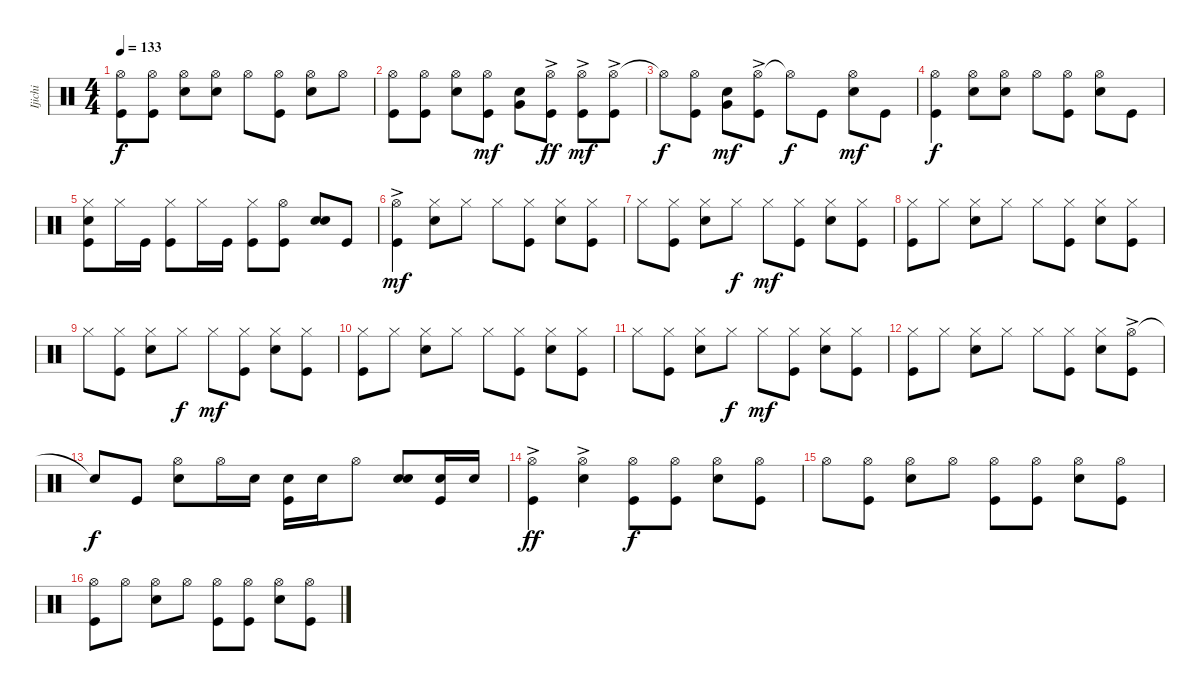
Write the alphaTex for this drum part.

\track ("Ijichi" "Ijichi") {instrument percussion}
\staff {score}
\articulation defaults
\ts (4 4)
\tempo 133
\clef neutral
\ks c
("Hi-Hat (open)" "Kick (hit)").8{dy f} ("Hi-Hat (open)" "Kick (hit)").8 ("Hi-Hat (open)" "Snare (hit) 2").8 ("Hi-Hat (open)" "Snare (hit) 2").8 "Hi-Hat (open)".8 ("Hi-Hat (open)" "Kick (hit)").8 ("Hi-Hat (open)" "Snare (hit) 2").8 "Hi-Hat (open)".8 |
("Hi-Hat (open)" "Kick (hit)").8 ("Hi-Hat (open)" "Kick (hit)").8 ("Hi-Hat (open)" "Snare (hit) 2").8 ("Hi-Hat (open)" "Kick (hit)").8{dy mf} ("Snare (hit) 2" "Very Low Tom (hit)").8 ("Hi-Hat (open)"{ac} "Kick (hit)").8{dy ff} ("Hi-Hat (open)"{ac} "Kick (hit)").8{dy mf} ("Hi-Hat (open)"{ac} "Kick (hit)").8 |
"Hi-Hat (open)"{t}.8{dy f} ("Hi-Hat (open)" "Kick (hit)").8 ("Snare (hit) 2" "Very Low Tom (hit)").8{dy mf} ("Hi-Hat (open)"{ac} "Kick (hit)").8 "Hi-Hat (open)"{t}.8{dy f} "Kick (hit)".8 ("Hi-Hat (open)" "Snare (hit) 2").8{dy mf} "Kick (hit)".8 |
("Hi-Hat (open)" "Kick (hit)").4{dy f} ("Hi-Hat (open)" "Snare (hit) 2").8 ("Hi-Hat (open)" "Snare (hit) 2").8 "Hi-Hat (open)".8 ("Hi-Hat (open)" "Kick (hit)").8 ("Hi-Hat (open)" "Snare (hit) 2").8 "Kick (hit)".8 |
("Hi-Hat (closed)" "Snare (hit) 2" "Kick (hit)").8 "Hi-Hat (closed)".16 "Kick (hit)".16 ("Hi-Hat (closed)" "Kick (hit)").8 "Hi-Hat (closed)".16 "Kick (hit)".16 ("Hi-Hat (closed)" "Kick (hit)").8 ("Hi-Hat (open)" "Kick (hit)").8 ("Snare (hit) 2" "Snare (hit) 2").8 "Kick (hit)".8 |
("Hi-Hat (open)"{ac} "Kick (hit)").4{dy mf} ("Hi-Hat (closed)" "Snare (hit) 2").8 "Hi-Hat (closed)".8 "Hi-Hat (closed)".8 ("Hi-Hat (closed)" "Kick (hit)").8 ("Hi-Hat (closed)" "Snare (hit) 2").8 ("Hi-Hat (closed)" "Kick (hit)").8 |
"Hi-Hat (closed)".8 ("Hi-Hat (closed)" "Kick (hit)").8 ("Hi-Hat (closed)" "Snare (hit) 2").8 "Hi-Hat (closed)".8{dy f} "Hi-Hat (closed)".8{dy mf} ("Hi-Hat (closed)" "Kick (hit)").8 ("Hi-Hat (closed)" "Snare (hit) 2").8 ("Hi-Hat (closed)" "Kick (hit)").8 |
("Hi-Hat (closed)" "Kick (hit)").8 "Hi-Hat (closed)".8 ("Hi-Hat (closed)" "Snare (hit) 2").8 "Hi-Hat (closed)".8 "Hi-Hat (closed)".8 ("Hi-Hat (closed)" "Kick (hit)").8 ("Hi-Hat (closed)" "Snare (hit) 2").8 ("Hi-Hat (closed)" "Kick (hit)").8 |
"Hi-Hat (closed)".8 ("Hi-Hat (closed)" "Kick (hit)").8 ("Hi-Hat (closed)" "Snare (hit) 2").8 "Hi-Hat (closed)".8{dy f} "Hi-Hat (closed)".8{dy mf} ("Hi-Hat (closed)" "Kick (hit)").8 ("Hi-Hat (closed)" "Snare (hit) 2").8 ("Hi-Hat (closed)" "Kick (hit)").8 |
("Hi-Hat (closed)" "Kick (hit)").8 "Hi-Hat (closed)".8 ("Hi-Hat (closed)" "Snare (hit) 2").8 "Hi-Hat (closed)".8 "Hi-Hat (closed)".8 ("Hi-Hat (closed)" "Kick (hit)").8 ("Hi-Hat (closed)" "Snare (hit) 2").8 ("Hi-Hat (closed)" "Kick (hit)").8 |
"Hi-Hat (closed)".8 ("Hi-Hat (closed)" "Kick (hit)").8 ("Hi-Hat (closed)" "Snare (hit) 2").8 "Hi-Hat (closed)".8{dy f} "Hi-Hat (closed)".8{dy mf} ("Hi-Hat (closed)" "Kick (hit)").8 ("Hi-Hat (closed)" "Snare (hit) 2").8 ("Hi-Hat (closed)" "Kick (hit)").8 |
("Hi-Hat (closed)" "Kick (hit)").8 "Hi-Hat (closed)".8 ("Hi-Hat (closed)" "Snare (hit) 2").8 "Hi-Hat (closed)".8 "Hi-Hat (closed)".8 ("Hi-Hat (closed)" "Kick (hit)").8 ("Hi-Hat (closed)" "Snare (hit) 2").8 ("Hi-Hat (open)"{ac} "Kick (hit)").8 |
"Snare (hit)"{t}.8{dy f} "Kick (hit)".8 ("Hi-Hat (open)" "Snare (hit) 2").8 "Hi-Hat (open)".16 "Snare (hit) 2".16 ("Snare (hit) 2" "Kick (hit)").16 "Snare (hit) 2".16 "Hi-Hat (open)".8 ("Snare (hit) 2" "Snare (hit) 2").8 ("Snare (hit) 2" "Kick (hit)").16 "Snare (hit) 2".16 |
("Hi-Hat (open)"{ac} "Kick (hit)").4{dy ff} ("Hi-Hat (open)"{ac} "Snare (hit) 2").4 ("Hi-Hat (open)" "Kick (hit)").8{dy f} ("Hi-Hat (open)" "Kick (hit)").8 ("Hi-Hat (open)" "Snare (hit) 2").8 ("Hi-Hat (open)" "Kick (hit)").8 |
"Hi-Hat (open)".8 ("Hi-Hat (open)" "Kick (hit)").8 ("Hi-Hat (open)" "Snare (hit) 2").8 "Hi-Hat (open)".8 ("Hi-Hat (open)" "Kick (hit)").8 ("Hi-Hat (open)" "Kick (hit)").8 ("Hi-Hat (open)" "Snare (hit) 2").8 ("Hi-Hat (open)" "Kick (hit)").8 |
("Hi-Hat (open)" "Kick (hit)").8 "Hi-Hat (open)".8 ("Hi-Hat (open)" "Snare (hit) 2").8 "Hi-Hat (open)".8 ("Hi-Hat (open)" "Kick (hit)").8 ("Hi-Hat (open)" "Kick (hit)").8 ("Hi-Hat (open)" "Snare (hit) 2").8 ("Hi-Hat (open)" "Kick (hit)").8
